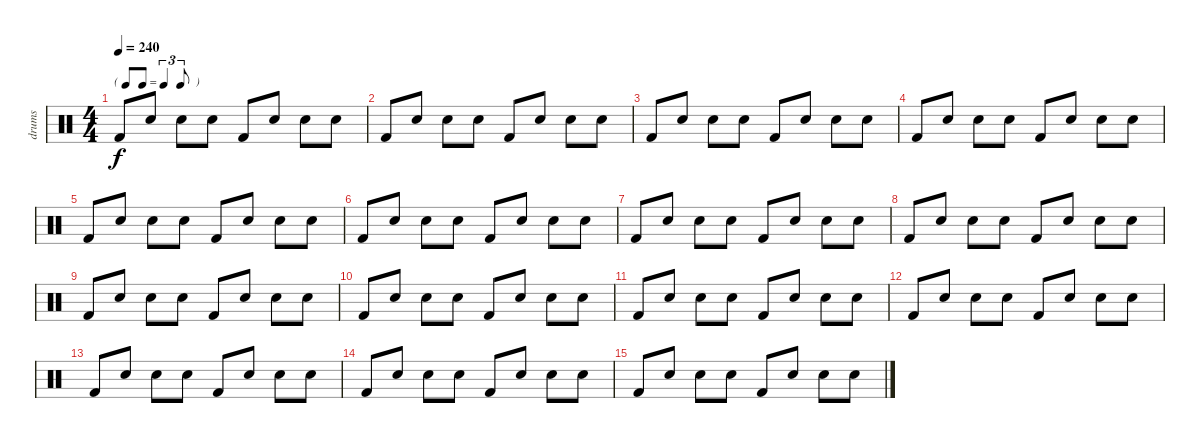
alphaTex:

\track ("drums" "drums") {instrument percussion}
\staff {score}
\articulation defaults
\ts (4 4)
\tf triplet8th
\tempo 240
\clef neutral
\ks c "Kick (hit) 2".8{dy f} "Electric Snare (hit)"{x}.8 "Electric Snare (hit)".8 "Electric Snare (hit)"{x}.8 "Kick (hit) 2".8 "Electric Snare (hit)"{x}.8 "Electric Snare (hit)".8 "Electric Snare (hit)"{x}.8
|
"Kick (hit) 2".8 "Electric Snare (hit)"{x}.8 "Electric Snare (hit)".8 "Electric Snare (hit)"{x}.8 "Kick (hit) 2".8 "Electric Snare (hit)"{x}.8 "Electric Snare (hit)".8 "Electric Snare (hit)"{x}.8 |
"Kick (hit) 2".8 "Electric Snare (hit)"{x}.8 "Electric Snare (hit)".8 "Electric Snare (hit)"{x}.8 "Kick (hit) 2".8 "Electric Snare (hit)"{x}.8 "Electric Snare (hit)".8 "Electric Snare (hit)"{x}.8 |
"Kick (hit) 2".8 "Electric Snare (hit)"{x}.8 "Electric Snare (hit)".8 "Electric Snare (hit)"{x}.8 "Kick (hit) 2".8 "Electric Snare (hit)"{x}.8 "Electric Snare (hit)".8 "Electric Snare (hit)"{x}.8 |
"Kick (hit) 2".8 "Electric Snare (hit)"{x}.8 "Electric Snare (hit)".8 "Electric Snare (hit)"{x}.8 "Kick (hit) 2".8 "Electric Snare (hit)"{x}.8 "Electric Snare (hit)".8 "Electric Snare (hit)"{x}.8 |
"Kick (hit) 2".8 "Electric Snare (hit)"{x}.8 "Electric Snare (hit)".8 "Electric Snare (hit)"{x}.8 "Kick (hit) 2".8 "Electric Snare (hit)"{x}.8 "Electric Snare (hit)".8 "Electric Snare (hit)"{x}.8 |
"Kick (hit) 2".8 "Electric Snare (hit)"{x}.8 "Electric Snare (hit)".8 "Electric Snare (hit)"{x}.8 "Kick (hit) 2".8 "Electric Snare (hit)"{x}.8 "Electric Snare (hit)".8 "Electric Snare (hit)"{x}.8 |
"Kick (hit) 2".8 "Electric Snare (hit)"{x}.8 "Electric Snare (hit)".8 "Electric Snare (hit)"{x}.8 "Kick (hit) 2".8 "Electric Snare (hit)"{x}.8 "Electric Snare (hit)".8 "Electric Snare (hit)"{x}.8 |
"Kick (hit) 2".8 "Electric Snare (hit)"{x}.8 "Electric Snare (hit)".8 "Electric Snare (hit)"{x}.8 "Kick (hit) 2".8 "Electric Snare (hit)"{x}.8 "Electric Snare (hit)".8 "Electric Snare (hit)"{x}.8 |
"Kick (hit) 2".8 "Electric Snare (hit)"{x}.8 "Electric Snare (hit)".8 "Electric Snare (hit)"{x}.8 "Kick (hit) 2".8 "Electric Snare (hit)"{x}.8 "Electric Snare (hit)".8 "Electric Snare (hit)"{x}.8 |
"Kick (hit) 2".8 "Electric Snare (hit)"{x}.8 "Electric Snare (hit)".8 "Electric Snare (hit)"{x}.8 "Kick (hit) 2".8 "Electric Snare (hit)"{x}.8 "Electric Snare (hit)".8 "Electric Snare (hit)"{x}.8 |
"Kick (hit) 2".8 "Electric Snare (hit)"{x}.8 "Electric Snare (hit)".8 "Electric Snare (hit)"{x}.8 "Kick (hit) 2".8 "Electric Snare (hit)"{x}.8 "Electric Snare (hit)".8 "Electric Snare (hit)"{x}.8 |
"Kick (hit) 2".8 "Electric Snare (hit)"{x}.8 "Electric Snare (hit)".8 "Electric Snare (hit)"{x}.8 "Kick (hit) 2".8 "Electric Snare (hit)"{x}.8 "Electric Snare (hit)".8 "Electric Snare (hit)"{x}.8 |
"Kick (hit) 2".8 "Electric Snare (hit)"{x}.8 "Electric Snare (hit)".8 "Electric Snare (hit)"{x}.8 "Kick (hit) 2".8 "Electric Snare (hit)"{x}.8 "Electric Snare (hit)".8 "Electric Snare (hit)"{x}.8 |
"Kick (hit) 2".8 "Electric Snare (hit)"{x}.8 "Electric Snare (hit)".8 "Electric Snare (hit)"{x}.8 "Kick (hit) 2".8 "Electric Snare (hit)"{x}.8 "Electric Snare (hit)".8 "Electric Snare (hit)"{x}.8
